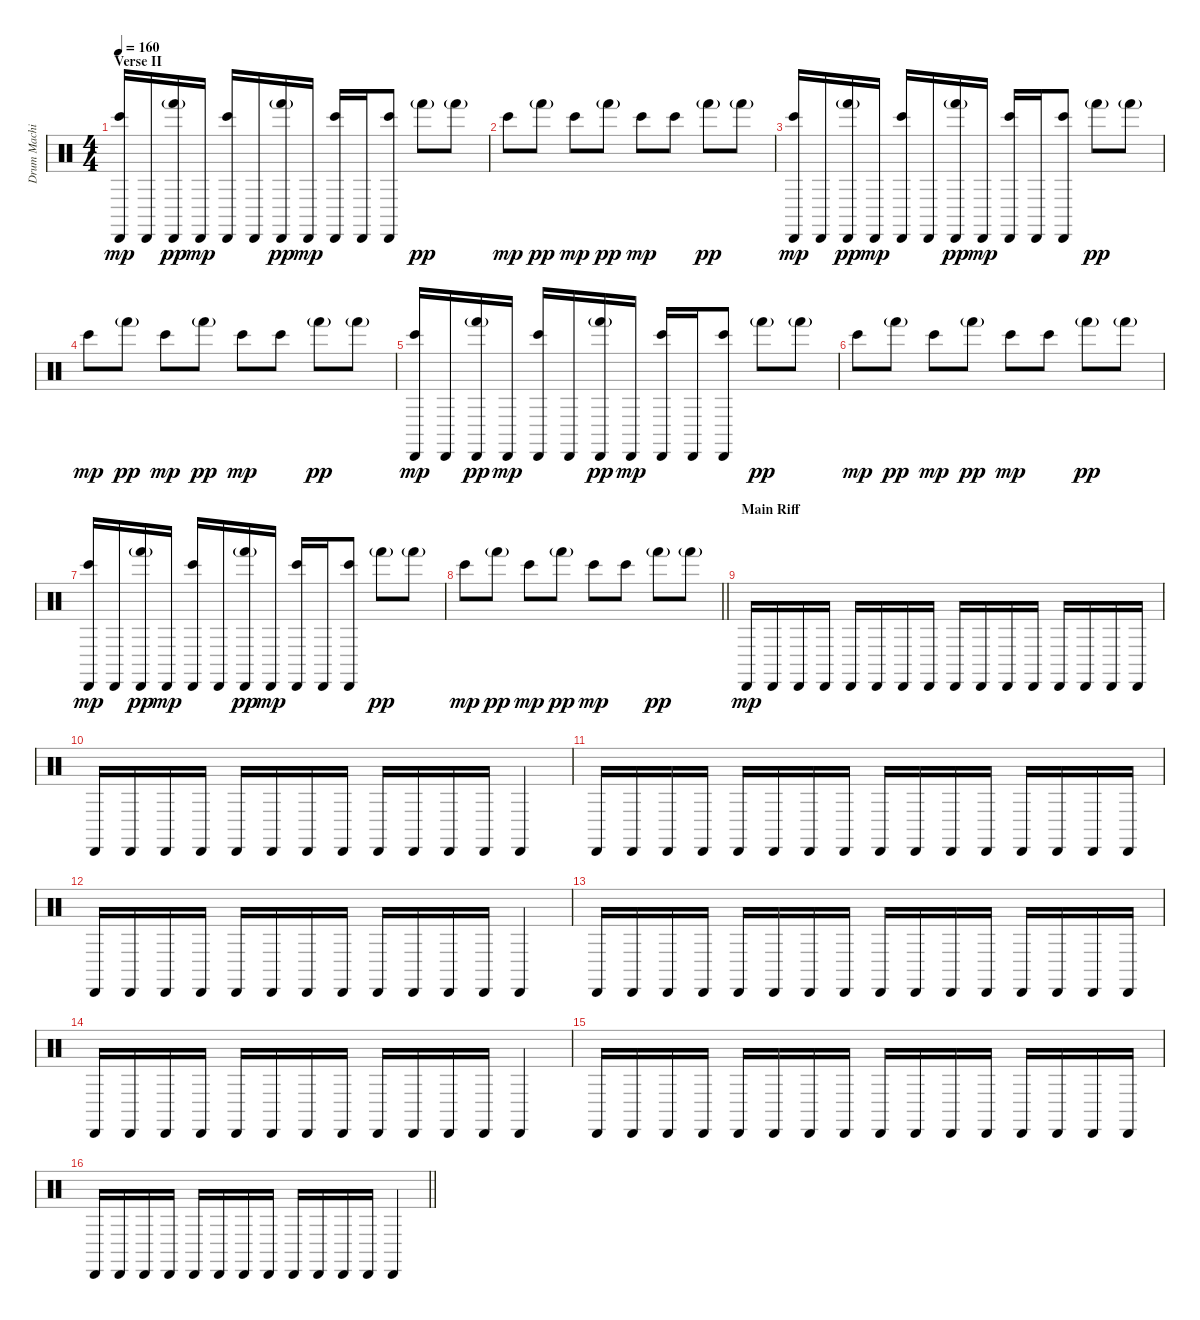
\track ("Drum Machine" "Drum Machi") {instrument percussion}
\staff {score}
\articulation defaults
\ts (4 4)
\section ("" "Verse II")
\tempo 160
\clef neutral
\ks c
("Cabasa (hit)" "Bongo High (hit)").16{dy mp} "Cabasa (hit)".16 ("Cabasa (hit)" "Hand (hit)"{g}).16{dy pp} "Cabasa (hit)".16{dy mp} ("Cabasa (hit)" "Bongo High (hit)").16 "Cabasa (hit)".16 ("Cabasa (hit)" "Hand (hit)"{g}).16{dy pp} "Cabasa (hit)".16{dy mp} ("Cabasa (hit)" "Bongo High (hit)").16 "Cabasa (hit)".16 ("Cabasa (hit)" "Bongo High (hit)").8 "Hand (hit)"{g}.8{dy pp} "Hand (hit)"{g}.8 |
"Bongo High (hit)".8{dy mp} "Hand (hit)"{g}.8{dy pp} "Bongo High (hit)".8{dy mp} "Hand (hit)"{g}.8{dy pp} "Bongo High (hit)".8{dy mp} "Bongo High (hit)".8 "Hand (hit)"{g}.8{dy pp} "Hand (hit)"{g}.8 |
("Cabasa (hit)" "Bongo High (hit)").16{dy mp} "Cabasa (hit)".16 ("Cabasa (hit)" "Hand (hit)"{g}).16{dy pp} "Cabasa (hit)".16{dy mp} ("Cabasa (hit)" "Bongo High (hit)").16 "Cabasa (hit)".16 ("Cabasa (hit)" "Hand (hit)"{g}).16{dy pp} "Cabasa (hit)".16{dy mp} ("Cabasa (hit)" "Bongo High (hit)").16 "Cabasa (hit)".16 ("Cabasa (hit)" "Bongo High (hit)").8 "Hand (hit)"{g}.8{dy pp} "Hand (hit)"{g}.8 |
"Bongo High (hit)".8{dy mp} "Hand (hit)"{g}.8{dy pp} "Bongo High (hit)".8{dy mp} "Hand (hit)"{g}.8{dy pp} "Bongo High (hit)".8{dy mp} "Bongo High (hit)".8 "Hand (hit)"{g}.8{dy pp} "Hand (hit)"{g}.8 |
("Cabasa (hit)" "Bongo High (hit)").16{dy mp} "Cabasa (hit)".16 ("Cabasa (hit)" "Hand (hit)"{g}).16{dy pp} "Cabasa (hit)".16{dy mp} ("Cabasa (hit)" "Bongo High (hit)").16 "Cabasa (hit)".16 ("Cabasa (hit)" "Hand (hit)"{g}).16{dy pp} "Cabasa (hit)".16{dy mp} ("Cabasa (hit)" "Bongo High (hit)").16 "Cabasa (hit)".16 ("Cabasa (hit)" "Bongo High (hit)").8 "Hand (hit)"{g}.8{dy pp} "Hand (hit)"{g}.8 |
"Bongo High (hit)".8{dy mp} "Hand (hit)"{g}.8{dy pp} "Bongo High (hit)".8{dy mp} "Hand (hit)"{g}.8{dy pp} "Bongo High (hit)".8{dy mp} "Bongo High (hit)".8 "Hand (hit)"{g}.8{dy pp} "Hand (hit)"{g}.8 |
("Cabasa (hit)" "Bongo High (hit)").16{dy mp} "Cabasa (hit)".16 ("Cabasa (hit)" "Hand (hit)"{g}).16{dy pp} "Cabasa (hit)".16{dy mp} ("Cabasa (hit)" "Bongo High (hit)").16 "Cabasa (hit)".16 ("Cabasa (hit)" "Hand (hit)"{g}).16{dy pp} "Cabasa (hit)".16{dy mp} ("Cabasa (hit)" "Bongo High (hit)").16 "Cabasa (hit)".16 ("Cabasa (hit)" "Bongo High (hit)").8 "Hand (hit)"{g}.8{dy pp} "Hand (hit)"{g}.8 |
\barLineRight lightlight "Bongo High (hit)".8{dy mp} "Hand (hit)"{g}.8{dy pp} "Bongo High (hit)".8{dy mp} "Hand (hit)"{g}.8{dy pp} "Bongo High (hit)".8{dy mp} "Bongo High (hit)".8 "Hand (hit)"{g}.8{dy pp} "Hand (hit)"{g}.8
|
\section ("" "Main Riff")
"Cabasa (hit)".16{dy mp} "Cabasa (hit)".16 "Cabasa (hit)".16 "Cabasa (hit)".16 "Cabasa (hit)".16 "Cabasa (hit)".16 "Cabasa (hit)".16 "Cabasa (hit)".16 "Cabasa (hit)".16 "Cabasa (hit)".16 "Cabasa (hit)".16 "Cabasa (hit)".16 "Cabasa (hit)".16 "Cabasa (hit)".16 "Cabasa (hit)".16 "Cabasa (hit)".16 |
"Cabasa (hit)".16 "Cabasa (hit)".16 "Cabasa (hit)".16 "Cabasa (hit)".16 "Cabasa (hit)".16 "Cabasa (hit)".16 "Cabasa (hit)".16 "Cabasa (hit)".16 "Cabasa (hit)".16 "Cabasa (hit)".16 "Cabasa (hit)".16 "Cabasa (hit)".16 "Cabasa (hit)".4 |
"Cabasa (hit)".16 "Cabasa (hit)".16 "Cabasa (hit)".16 "Cabasa (hit)".16 "Cabasa (hit)".16 "Cabasa (hit)".16 "Cabasa (hit)".16 "Cabasa (hit)".16 "Cabasa (hit)".16 "Cabasa (hit)".16 "Cabasa (hit)".16 "Cabasa (hit)".16 "Cabasa (hit)".16 "Cabasa (hit)".16 "Cabasa (hit)".16 "Cabasa (hit)".16 |
"Cabasa (hit)".16 "Cabasa (hit)".16 "Cabasa (hit)".16 "Cabasa (hit)".16 "Cabasa (hit)".16 "Cabasa (hit)".16 "Cabasa (hit)".16 "Cabasa (hit)".16 "Cabasa (hit)".16 "Cabasa (hit)".16 "Cabasa (hit)".16 "Cabasa (hit)".16 "Cabasa (hit)".4 |
"Cabasa (hit)".16 "Cabasa (hit)".16 "Cabasa (hit)".16 "Cabasa (hit)".16 "Cabasa (hit)".16 "Cabasa (hit)".16 "Cabasa (hit)".16 "Cabasa (hit)".16 "Cabasa (hit)".16 "Cabasa (hit)".16 "Cabasa (hit)".16 "Cabasa (hit)".16 "Cabasa (hit)".16 "Cabasa (hit)".16 "Cabasa (hit)".16 "Cabasa (hit)".16 |
"Cabasa (hit)".16 "Cabasa (hit)".16 "Cabasa (hit)".16 "Cabasa (hit)".16 "Cabasa (hit)".16 "Cabasa (hit)".16 "Cabasa (hit)".16 "Cabasa (hit)".16 "Cabasa (hit)".16 "Cabasa (hit)".16 "Cabasa (hit)".16 "Cabasa (hit)".16 "Cabasa (hit)".4 |
"Cabasa (hit)".16 "Cabasa (hit)".16 "Cabasa (hit)".16 "Cabasa (hit)".16 "Cabasa (hit)".16 "Cabasa (hit)".16 "Cabasa (hit)".16 "Cabasa (hit)".16 "Cabasa (hit)".16 "Cabasa (hit)".16 "Cabasa (hit)".16 "Cabasa (hit)".16 "Cabasa (hit)".16 "Cabasa (hit)".16 "Cabasa (hit)".16 "Cabasa (hit)".16 |
\barLineRight lightlight "Cabasa (hit)".16 "Cabasa (hit)".16 "Cabasa (hit)".16 "Cabasa (hit)".16 "Cabasa (hit)".16 "Cabasa (hit)".16 "Cabasa (hit)".16 "Cabasa (hit)".16 "Cabasa (hit)".16 "Cabasa (hit)".16 "Cabasa (hit)".16 "Cabasa (hit)".16 "Cabasa (hit)".4
